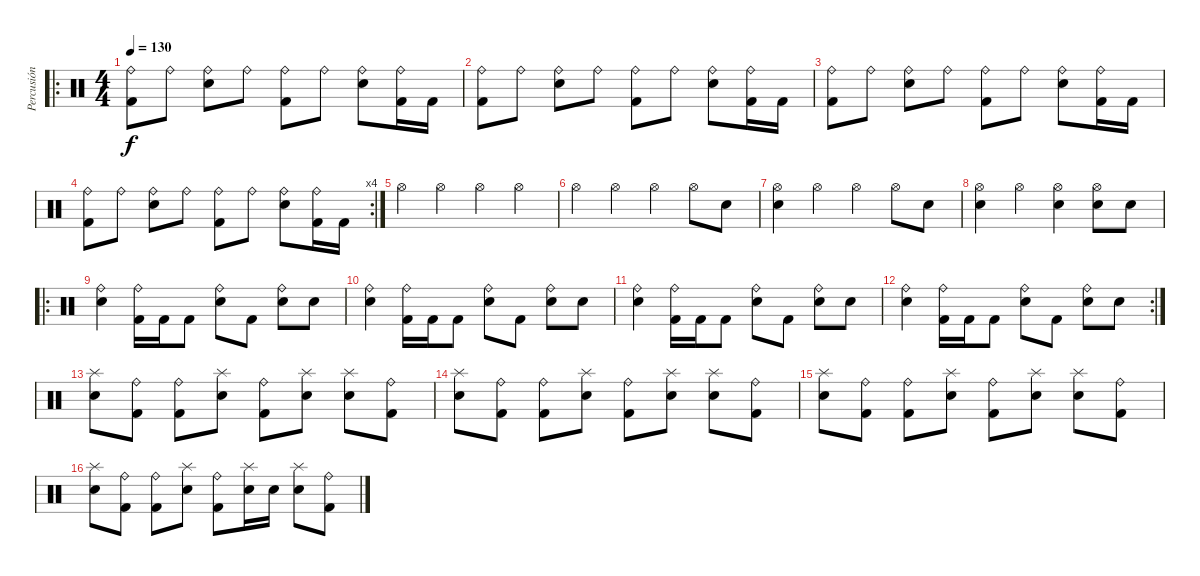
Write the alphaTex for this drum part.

\track ("Percusión" "Percusión") {instrument percussion}
\staff {score}
\articulation defaults
\ro
\ts (4 4)
\tempo 130
\clef neutral
\ks c
("Ride (bell)" "Kick (hit) 2").8{dy f} "Ride (bell)".8 ("Ride (bell)" "Electric Snare (hit)").8 "Ride (bell)".8 ("Ride (bell)" "Kick (hit) 2").8 "Ride (bell)".8 ("Ride (bell)" "Electric Snare (hit)").8 ("Ride (bell)" "Kick (hit) 2").16 "Kick (hit) 2".16 |
("Ride (bell)" "Kick (hit) 2").8 "Ride (bell)".8 ("Ride (bell)" "Electric Snare (hit)").8 "Ride (bell)".8 ("Ride (bell)" "Kick (hit) 2").8 "Ride (bell)".8 ("Ride (bell)" "Electric Snare (hit)").8 ("Ride (bell)" "Kick (hit) 2").16 "Kick (hit) 2".16 |
("Ride (bell)" "Kick (hit) 2").8 "Ride (bell)".8 ("Ride (bell)" "Electric Snare (hit)").8 "Ride (bell)".8 ("Ride (bell)" "Kick (hit) 2").8 "Ride (bell)".8 ("Ride (bell)" "Electric Snare (hit)").8 ("Ride (bell)" "Kick (hit) 2").16 "Kick (hit) 2".16 |
\rc 4
("Ride (bell)" "Kick (hit) 2").8 "Ride (bell)".8 ("Ride (bell)" "Electric Snare (hit)").8 "Ride (bell)".8 ("Ride (bell)" "Kick (hit) 2").8 "Ride (bell)".8 ("Ride (bell)" "Electric Snare (hit)").8 ("Ride (bell)" "Kick (hit) 2").16 "Kick (hit) 2".16 |
"Hi-Hat (open)".4 "Hi-Hat (open)".4 "Hi-Hat (open)".4 "Hi-Hat (open)".4 |
"Hi-Hat (open)".4 "Hi-Hat (open)".4 "Hi-Hat (open)".4 "Hi-Hat (open)".8 "Electric Snare (hit)".8 |
("Hi-Hat (open)" "Electric Snare (hit)").4 "Hi-Hat (open)".4 "Hi-Hat (open)".4 "Hi-Hat (open)".8 "Electric Snare (hit)".8 |
("Hi-Hat (open)" "Electric Snare (hit)").4 "Hi-Hat (open)".4 ("Hi-Hat (open)" "Electric Snare (hit)").4 ("Hi-Hat (open)" "Electric Snare (hit)").8 "Electric Snare (hit)".8 |
\ro
("Ride (bell)" "Electric Snare (hit)").4 ("Ride (bell)" "Kick (hit) 2").16 "Kick (hit) 2".16 "Kick (hit) 2".8 ("Ride (bell)" "Electric Snare (hit)").8 "Kick (hit) 2".8 ("Ride (bell)" "Electric Snare (hit)").8 "Electric Snare (hit)".8 |
("Ride (bell)" "Electric Snare (hit)").4 ("Ride (bell)" "Kick (hit) 2").16 "Kick (hit) 2".16 "Kick (hit) 2".8 ("Ride (bell)" "Electric Snare (hit)").8 "Kick (hit) 2".8 ("Ride (bell)" "Electric Snare (hit)").8 "Electric Snare (hit)".8 |
("Ride (bell)" "Electric Snare (hit)").4 ("Ride (bell)" "Kick (hit) 2").16 "Kick (hit) 2".16 "Kick (hit) 2".8 ("Ride (bell)" "Electric Snare (hit)").8 "Kick (hit) 2".8 ("Ride (bell)" "Electric Snare (hit)").8 "Electric Snare (hit)".8 |
\rc 2
("Ride (bell)" "Electric Snare (hit)").4 ("Ride (bell)" "Kick (hit) 2").16 "Kick (hit) 2".16 "Kick (hit) 2".8 ("Ride (bell)" "Electric Snare (hit)").8 "Kick (hit) 2".8 ("Ride (bell)" "Electric Snare (hit)").8 "Electric Snare (hit)".8 |
("Splash (hit)" "Electric Snare (hit)").8 ("Ride (bell)" "Kick (hit) 2").8 ("Ride (bell)" "Kick (hit) 2").8 ("Splash (hit)" "Electric Snare (hit)").8 ("Ride (bell)" "Kick (hit) 2").8 ("Splash (hit)" "Electric Snare (hit)").8 ("Splash (hit)" "Electric Snare (hit)").8 ("Ride (bell)" "Kick (hit) 2").8 |
("Splash (hit)" "Electric Snare (hit)").8 ("Ride (bell)" "Kick (hit) 2").8 ("Ride (bell)" "Kick (hit) 2").8 ("Splash (hit)" "Electric Snare (hit)").8 ("Ride (bell)" "Kick (hit) 2").8 ("Splash (hit)" "Electric Snare (hit)").8 ("Splash (hit)" "Electric Snare (hit)").8 ("Ride (bell)" "Kick (hit) 2").8 |
("Splash (hit)" "Electric Snare (hit)").8 ("Ride (bell)" "Kick (hit) 2").8 ("Ride (bell)" "Kick (hit) 2").8 ("Splash (hit)" "Electric Snare (hit)").8 ("Ride (bell)" "Kick (hit) 2").8 ("Splash (hit)" "Electric Snare (hit)").8 ("Splash (hit)" "Electric Snare (hit)").8 ("Ride (bell)" "Kick (hit) 2").8 |
("Splash (hit)" "Electric Snare (hit)").8 ("Ride (bell)" "Kick (hit) 2").8 ("Ride (bell)" "Kick (hit) 2").8 ("Splash (hit)" "Electric Snare (hit)").8 ("Ride (bell)" "Kick (hit) 2").8 ("Splash (hit)" "Electric Snare (hit)").16 "Electric Snare (hit)".16 ("Splash (hit)" "Electric Snare (hit)").8 ("Ride (bell)" "Kick (hit) 2").8
